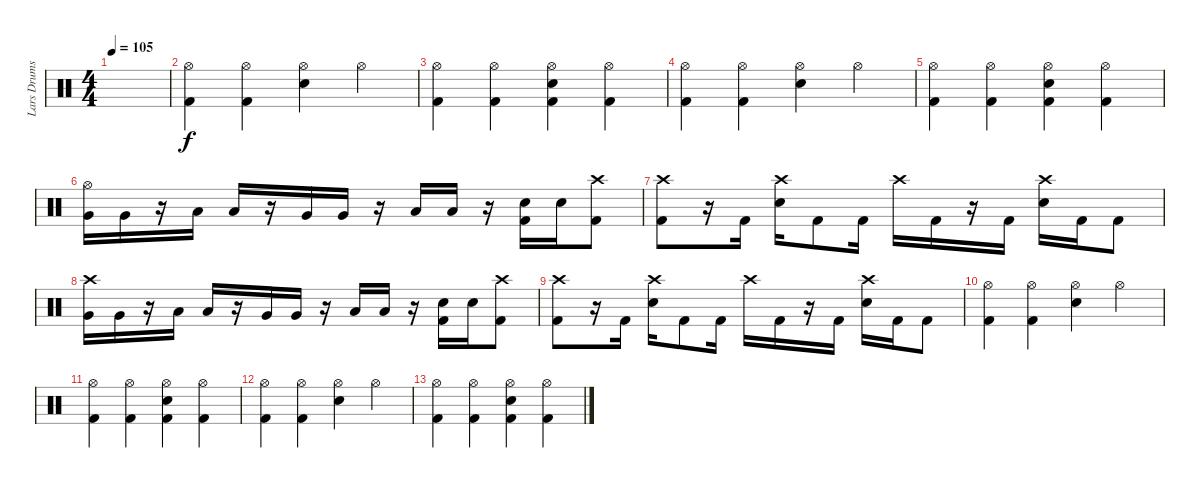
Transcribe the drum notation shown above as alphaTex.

\track ("Lars Drums" "Lars Drums") {instrument percussion}
\staff {score}
\articulation defaults
\ts (4 4)
\tempo 105
\clef neutral
\ks c
|
("Hi-Hat (open)" "Kick (hit) 2").4 ("Hi-Hat (open)" "Kick (hit) 2").4 ("Hi-Hat (open)" "Snare (hit) 2").4 "Hi-Hat (open)".4 |
("Hi-Hat (open)" "Kick (hit) 2").4 ("Hi-Hat (open)" "Kick (hit) 2").4 ("Hi-Hat (open)" "Kick (hit) 2" "Snare (hit) 2").4 ("Hi-Hat (open)" "Kick (hit) 2").4 |
("Hi-Hat (open)" "Kick (hit) 2").4 ("Hi-Hat (open)" "Kick (hit) 2").4 ("Hi-Hat (open)" "Snare (hit) 2").4 "Hi-Hat (open)".4 |
("Hi-Hat (open)" "Kick (hit) 2").4 ("Hi-Hat (open)" "Kick (hit) 2").4 ("Hi-Hat (open)" "Kick (hit) 2" "Snare (hit) 2").4 ("Hi-Hat (open)" "Kick (hit) 2").4 |
("Hi-Hat (open)" "Very Low Tom (hit)").16 "Very Low Tom (hit)".16 r.16 "Low Floor Tom (hit)".16 "Low Floor Tom (hit)".16 r.16 "Very Low Tom (hit)".16 "Very Low Tom (hit)".16 r.16 "Low Floor Tom (hit)".16 "Low Floor Tom (hit)".16 r.16 ("Kick (hit) 2" "Snare (hit) 2").16 "Snare (hit) 2".16 ("Crash high (hit)" "Kick (hit) 2").8 |
("Crash high (hit)" "Kick (hit) 2").8 r.16 "Kick (hit) 2".16 ("Crash high (hit)" "Snare (hit) 2").16 "Kick (hit) 2".8 "Kick (hit) 2".16 "Crash high (hit)".16 "Kick (hit) 2".16 r.16 "Kick (hit) 2".16 ("Crash high (hit)" "Snare (hit) 2").16 "Kick (hit) 2".16 "Kick (hit) 2".8 |
("Crash high (hit)" "Very Low Tom (hit)").16 "Very Low Tom (hit)".16 r.16 "Low Floor Tom (hit)".16 "Low Floor Tom (hit)".16 r.16 "Very Low Tom (hit)".16 "Very Low Tom (hit)".16 r.16 "Low Floor Tom (hit)".16 "Low Floor Tom (hit)".16 r.16 ("Kick (hit) 2" "Snare (hit) 2").16 "Snare (hit) 2".16 ("Crash high (hit)" "Kick (hit) 2").8 |
("Crash high (hit)" "Kick (hit) 2").8 r.16 "Kick (hit) 2".16 ("Crash high (hit)" "Snare (hit) 2").16 "Kick (hit) 2".8 "Kick (hit) 2".16 "Crash high (hit)".16 "Kick (hit) 2".16 r.16 "Kick (hit) 2".16 ("Crash high (hit)" "Snare (hit) 2").16 "Kick (hit) 2".16 "Kick (hit) 2".8 |
("Hi-Hat (open)" "Kick (hit) 2").4 ("Hi-Hat (open)" "Kick (hit) 2").4 ("Hi-Hat (open)" "Snare (hit) 2").4 "Hi-Hat (open)".4 |
("Hi-Hat (open)" "Kick (hit) 2").4 ("Hi-Hat (open)" "Kick (hit) 2").4 ("Hi-Hat (open)" "Kick (hit) 2" "Snare (hit) 2").4 ("Hi-Hat (open)" "Kick (hit) 2").4 |
("Hi-Hat (open)" "Kick (hit) 2").4 ("Hi-Hat (open)" "Kick (hit) 2").4 ("Hi-Hat (open)" "Snare (hit) 2").4 "Hi-Hat (open)".4 |
("Hi-Hat (open)" "Kick (hit) 2").4 ("Hi-Hat (open)" "Kick (hit) 2").4 ("Hi-Hat (open)" "Kick (hit) 2" "Snare (hit) 2").4 ("Hi-Hat (open)" "Kick (hit) 2").4
